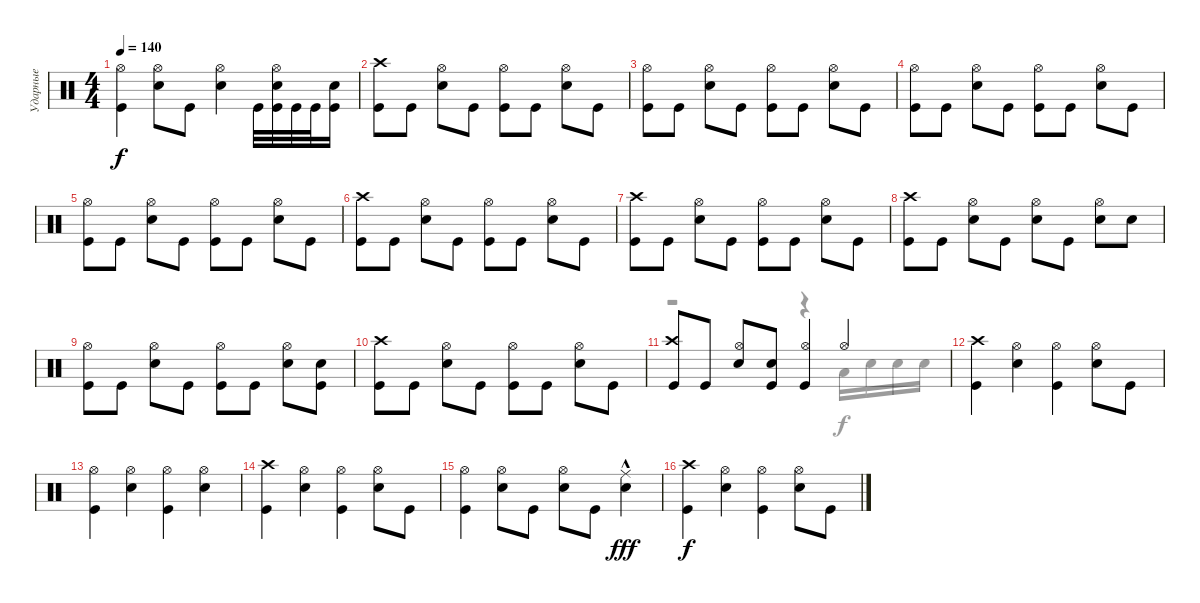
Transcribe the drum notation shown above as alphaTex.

\track ("Ударные" "Ударные") {instrument percussion}
\staff {score}
\articulation defaults
\voice
\ts (4 4)
\tempo 140
\clef neutral
\ks c
("Hi-Hat (open)" "Kick (hit)").4{dy f} ("Hi-Hat (open)" "Electric Snare (hit)").8 "Kick (hit)".8 ("Hi-Hat (open)" "Electric Snare (hit)").4 "Kick (hit)".32 ("Hi-Hat (open)" "Electric Snare (hit)" "Kick (hit)").32 "Kick (hit)".32 "Kick (hit)".32 ("Electric Snare (hit)" "Kick (hit)").16 |
("Crash high (hit)" "Kick (hit)").8 "Kick (hit)".8 ("Hi-Hat (open)" "Electric Snare (hit)").8 "Kick (hit)".8 ("Hi-Hat (open)" "Kick (hit)").8 "Kick (hit)".8 ("Hi-Hat (open)" "Electric Snare (hit)").8 "Kick (hit)".8 |
("Hi-Hat (open)" "Kick (hit)").8 "Kick (hit)".8 ("Hi-Hat (open)" "Electric Snare (hit)").8 "Kick (hit)".8 ("Hi-Hat (open)" "Kick (hit)").8 "Kick (hit)".8 ("Hi-Hat (open)" "Electric Snare (hit)").8 "Kick (hit)".8 |
("Hi-Hat (open)" "Kick (hit)").8 "Kick (hit)".8 ("Hi-Hat (open)" "Electric Snare (hit)").8 "Kick (hit)".8 ("Hi-Hat (open)" "Kick (hit)").8 "Kick (hit)".8 ("Hi-Hat (open)" "Electric Snare (hit)").8 "Kick (hit)".8 |
("Hi-Hat (open)" "Kick (hit)").8 "Kick (hit)".8 ("Hi-Hat (open)" "Electric Snare (hit)").8 "Kick (hit)".8 ("Hi-Hat (open)" "Kick (hit)").8 "Kick (hit)".8 ("Hi-Hat (open)" "Electric Snare (hit)").8 "Kick (hit)".8 |
("Crash high (hit)" "Kick (hit)").8 "Kick (hit)".8 ("Hi-Hat (open)" "Electric Snare (hit)").8 "Kick (hit)".8 ("Hi-Hat (open)" "Kick (hit)").8 "Kick (hit)".8 ("Hi-Hat (open)" "Electric Snare (hit)").8 "Kick (hit)".8 |
("Crash high (hit)" "Kick (hit)").8 "Kick (hit)".8 ("Hi-Hat (open)" "Electric Snare (hit)").8 "Kick (hit)".8 ("Hi-Hat (open)" "Kick (hit)").8 "Kick (hit)".8 ("Hi-Hat (open)" "Electric Snare (hit)").8 "Kick (hit)".8 |
("Crash high (hit)" "Kick (hit)").8 "Kick (hit)".8 ("Hi-Hat (open)" "Electric Snare (hit)").8 "Kick (hit)".8 ("Hi-Hat (open)" "Electric Snare (hit)").8 "Kick (hit)".8 ("Hi-Hat (open)" "Electric Snare (hit)").8 "Electric Snare (hit)".8 |
("Hi-Hat (open)" "Kick (hit)").8 "Kick (hit)".8 ("Hi-Hat (open)" "Electric Snare (hit)").8 "Kick (hit)".8 ("Hi-Hat (open)" "Kick (hit)").8 "Kick (hit)".8 ("Hi-Hat (open)" "Electric Snare (hit)").8 ("Electric Snare (hit)" "Kick (hit)").8 |
("Crash high (hit)" "Kick (hit)").8 "Kick (hit)".8 ("Hi-Hat (open)" "Electric Snare (hit)").8 "Kick (hit)".8 ("Hi-Hat (open)" "Kick (hit)").8 "Kick (hit)".8 ("Hi-Hat (open)" "Electric Snare (hit)").8 "Kick (hit)".8 |
("Crash high (hit)" "Kick (hit)").8 "Kick (hit)".8 ("Hi-Hat (open)" "Electric Snare (hit)").8 ("Electric Snare (hit)" "Kick (hit)").8 ("Hi-Hat (open)" "Kick (hit)").4 "Hi-Hat (open)".4 |
("Crash high (hit)" "Kick (hit)").4 ("Hi-Hat (open)" "Electric Snare (hit)").4 ("Hi-Hat (open)" "Kick (hit)").4 ("Hi-Hat (open)" "Electric Snare (hit)").8 "Kick (hit)".8 |
("Hi-Hat (open)" "Kick (hit)").4 ("Hi-Hat (open)" "Electric Snare (hit)").4 ("Hi-Hat (open)" "Kick (hit)").4 ("Hi-Hat (open)" "Electric Snare (hit)").4 |
("Crash high (hit)" "Kick (hit)").4 ("Hi-Hat (open)" "Electric Snare (hit)").4 ("Hi-Hat (open)" "Kick (hit)").4 ("Hi-Hat (open)" "Electric Snare (hit)").8 "Kick (hit)".8 |
("Hi-Hat (open)" "Kick (hit)").4 ("Hi-Hat (open)" "Electric Snare (hit)").8 "Kick (hit)".8 ("Hi-Hat (open)" "Electric Snare (hit)").8 "Kick (hit)".8 ("Ride (middle)"{hac} "Electric Snare (hit)").4{dy fff} |
("Crash high (hit)" "Kick (hit)").4{dy f} ("Hi-Hat (open)" "Electric Snare (hit)").4 ("Hi-Hat (open)" "Kick (hit)").4 ("Hi-Hat (open)" "Electric Snare (hit)").8 "Kick (hit)".8
\voice
\clef neutral
\ottava regular
\simile none
\ks c
|
|
|
|
|
|
|
|
|
|
r.2 r.4 "Low Floor Tom (hit)".16 "Electric Snare (hit)".16 "Electric Snare (hit)".16 "Electric Snare (hit)".16 |
|
|
|
|
